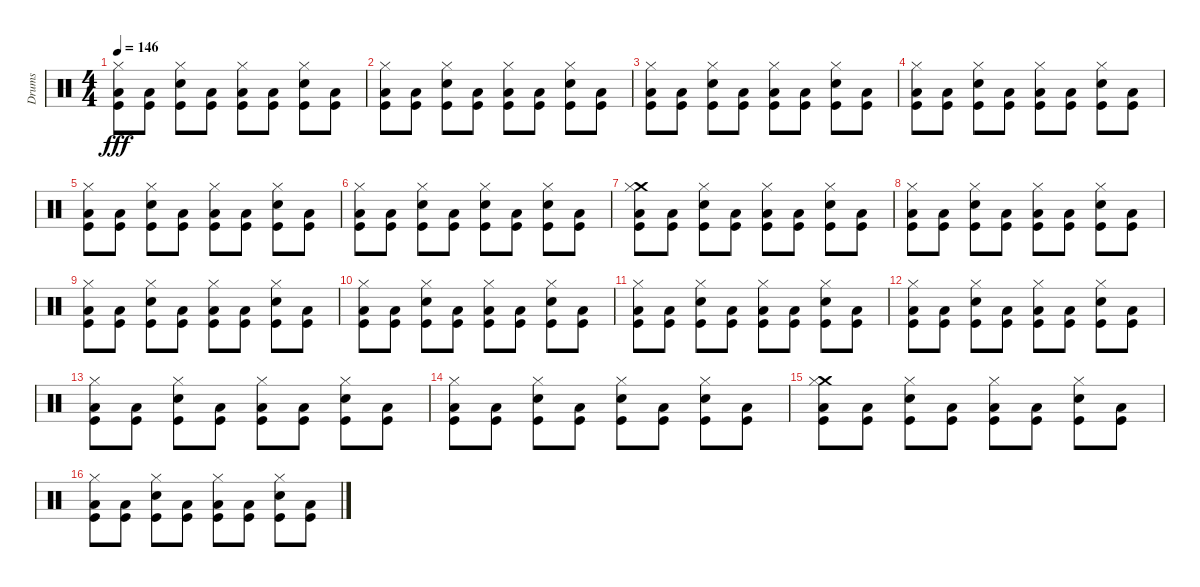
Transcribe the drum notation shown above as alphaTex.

\track ("Drums" "Drums") {instrument percussion}
\staff {score}
\articulation defaults
\ts (4 4)
\tempo 146
\clef neutral
\ks c
("Hi-Hat (closed)" "Low Floor Tom (hit)" "Kick (hit)").8{dy fff} ("Low Floor Tom (hit)" "Kick (hit)").8 ("Hi-Hat (closed)" "Electric Snare (hit)" "Kick (hit)").8 ("Low Floor Tom (hit)" "Kick (hit)").8 ("Hi-Hat (closed)" "Low Floor Tom (hit)" "Kick (hit)").8 ("Low Floor Tom (hit)" "Kick (hit)").8 ("Hi-Hat (closed)" "Electric Snare (hit)" "Kick (hit)").8 ("Low Floor Tom (hit)" "Kick (hit)").8 |
("Hi-Hat (closed)" "Low Floor Tom (hit)" "Kick (hit)").8 ("Low Floor Tom (hit)" "Kick (hit)").8 ("Hi-Hat (closed)" "Electric Snare (hit)" "Kick (hit)").8 ("Low Floor Tom (hit)" "Kick (hit)").8 ("Hi-Hat (closed)" "Low Floor Tom (hit)" "Kick (hit)").8 ("Low Floor Tom (hit)" "Kick (hit)").8 ("Hi-Hat (closed)" "Electric Snare (hit)" "Kick (hit)").8 ("Low Floor Tom (hit)" "Kick (hit)").8 |
("Hi-Hat (closed)" "Low Floor Tom (hit)" "Kick (hit)").8 ("Low Floor Tom (hit)" "Kick (hit)").8 ("Hi-Hat (closed)" "Electric Snare (hit)" "Kick (hit)").8 ("Low Floor Tom (hit)" "Kick (hit)").8 ("Hi-Hat (closed)" "Low Floor Tom (hit)" "Kick (hit)").8 ("Low Floor Tom (hit)" "Kick (hit)").8 ("Hi-Hat (closed)" "Electric Snare (hit)" "Kick (hit)").8 ("Low Floor Tom (hit)" "Kick (hit)").8 |
("Hi-Hat (closed)" "Low Floor Tom (hit)" "Kick (hit)").8 ("Low Floor Tom (hit)" "Kick (hit)").8 ("Hi-Hat (closed)" "Electric Snare (hit)" "Kick (hit)").8 ("Low Floor Tom (hit)" "Kick (hit)").8 ("Hi-Hat (closed)" "Low Floor Tom (hit)" "Kick (hit)").8 ("Low Floor Tom (hit)" "Kick (hit)").8 ("Hi-Hat (closed)" "Electric Snare (hit)" "Kick (hit)").8 ("Low Floor Tom (hit)" "Kick (hit)").8 |
("Hi-Hat (closed)" "Low Floor Tom (hit)" "Kick (hit)").8 ("Low Floor Tom (hit)" "Kick (hit)").8 ("Hi-Hat (closed)" "Electric Snare (hit)" "Kick (hit)").8 ("Low Floor Tom (hit)" "Kick (hit)").8 ("Hi-Hat (closed)" "Low Floor Tom (hit)" "Kick (hit)").8 ("Low Floor Tom (hit)" "Kick (hit)").8 ("Hi-Hat (closed)" "Electric Snare (hit)" "Kick (hit)").8 ("Low Floor Tom (hit)" "Kick (hit)").8 |
("Hi-Hat (closed)" "Low Floor Tom (hit)" "Kick (hit)").8 ("Low Floor Tom (hit)" "Kick (hit)").8 ("Hi-Hat (closed)" "Electric Snare (hit)" "Kick (hit)").8 ("Low Floor Tom (hit)" "Kick (hit)").8 ("Hi-Hat (closed)" "Electric Snare (hit)" "Kick (hit)").8 ("Low Floor Tom (hit)" "Kick (hit)").8 ("Hi-Hat (closed)" "Electric Snare (hit)" "Kick (hit)").8 ("Low Floor Tom (hit)" "Kick (hit)").8 |
("Crash medium (hit)" "Hi-Hat (closed)" "Low Floor Tom (hit)" "Kick (hit)").8 ("Low Floor Tom (hit)" "Kick (hit)").8 ("Hi-Hat (closed)" "Electric Snare (hit)" "Kick (hit)").8 ("Low Floor Tom (hit)" "Kick (hit)").8 ("Hi-Hat (closed)" "Low Floor Tom (hit)" "Kick (hit)").8 ("Low Floor Tom (hit)" "Kick (hit)").8 ("Hi-Hat (closed)" "Electric Snare (hit)" "Kick (hit)").8 ("Low Floor Tom (hit)" "Kick (hit)").8 |
("Hi-Hat (closed)" "Low Floor Tom (hit)" "Kick (hit)").8 ("Low Floor Tom (hit)" "Kick (hit)").8 ("Hi-Hat (closed)" "Electric Snare (hit)" "Kick (hit)").8 ("Low Floor Tom (hit)" "Kick (hit)").8 ("Hi-Hat (closed)" "Low Floor Tom (hit)" "Kick (hit)").8 ("Low Floor Tom (hit)" "Kick (hit)").8 ("Hi-Hat (closed)" "Electric Snare (hit)" "Kick (hit)").8 ("Low Floor Tom (hit)" "Kick (hit)").8 |
("Hi-Hat (closed)" "Low Floor Tom (hit)" "Kick (hit)").8 ("Low Floor Tom (hit)" "Kick (hit)").8 ("Hi-Hat (closed)" "Electric Snare (hit)" "Kick (hit)").8 ("Low Floor Tom (hit)" "Kick (hit)").8 ("Hi-Hat (closed)" "Low Floor Tom (hit)" "Kick (hit)").8 ("Low Floor Tom (hit)" "Kick (hit)").8 ("Hi-Hat (closed)" "Electric Snare (hit)" "Kick (hit)").8 ("Low Floor Tom (hit)" "Kick (hit)").8 |
("Hi-Hat (closed)" "Low Floor Tom (hit)" "Kick (hit)").8 ("Low Floor Tom (hit)" "Kick (hit)").8 ("Hi-Hat (closed)" "Electric Snare (hit)" "Kick (hit)").8 ("Low Floor Tom (hit)" "Kick (hit)").8 ("Hi-Hat (closed)" "Low Floor Tom (hit)" "Kick (hit)").8 ("Low Floor Tom (hit)" "Kick (hit)").8 ("Hi-Hat (closed)" "Electric Snare (hit)" "Kick (hit)").8 ("Low Floor Tom (hit)" "Kick (hit)").8 |
("Hi-Hat (closed)" "Low Floor Tom (hit)" "Kick (hit)").8 ("Low Floor Tom (hit)" "Kick (hit)").8 ("Hi-Hat (closed)" "Electric Snare (hit)" "Kick (hit)").8 ("Low Floor Tom (hit)" "Kick (hit)").8 ("Hi-Hat (closed)" "Low Floor Tom (hit)" "Kick (hit)").8 ("Low Floor Tom (hit)" "Kick (hit)").8 ("Hi-Hat (closed)" "Electric Snare (hit)" "Kick (hit)").8 ("Low Floor Tom (hit)" "Kick (hit)").8 |
("Hi-Hat (closed)" "Low Floor Tom (hit)" "Kick (hit)").8 ("Low Floor Tom (hit)" "Kick (hit)").8 ("Hi-Hat (closed)" "Electric Snare (hit)" "Kick (hit)").8 ("Low Floor Tom (hit)" "Kick (hit)").8 ("Hi-Hat (closed)" "Low Floor Tom (hit)" "Kick (hit)").8 ("Low Floor Tom (hit)" "Kick (hit)").8 ("Hi-Hat (closed)" "Electric Snare (hit)" "Kick (hit)").8 ("Low Floor Tom (hit)" "Kick (hit)").8 |
("Hi-Hat (closed)" "Low Floor Tom (hit)" "Kick (hit)").8 ("Low Floor Tom (hit)" "Kick (hit)").8 ("Hi-Hat (closed)" "Electric Snare (hit)" "Kick (hit)").8 ("Low Floor Tom (hit)" "Kick (hit)").8 ("Hi-Hat (closed)" "Low Floor Tom (hit)" "Kick (hit)").8 ("Low Floor Tom (hit)" "Kick (hit)").8 ("Hi-Hat (closed)" "Electric Snare (hit)" "Kick (hit)").8 ("Low Floor Tom (hit)" "Kick (hit)").8 |
("Hi-Hat (closed)" "Low Floor Tom (hit)" "Kick (hit)").8 ("Low Floor Tom (hit)" "Kick (hit)").8 ("Hi-Hat (closed)" "Electric Snare (hit)" "Kick (hit)").8 ("Low Floor Tom (hit)" "Kick (hit)").8 ("Hi-Hat (closed)" "Electric Snare (hit)" "Kick (hit)").8 ("Low Floor Tom (hit)" "Kick (hit)").8 ("Hi-Hat (closed)" "Electric Snare (hit)" "Kick (hit)").8 ("Low Floor Tom (hit)" "Kick (hit)").8 |
("Crash medium (hit)" "Hi-Hat (closed)" "Low Floor Tom (hit)" "Kick (hit)").8 ("Low Floor Tom (hit)" "Kick (hit)").8 ("Hi-Hat (closed)" "Electric Snare (hit)" "Kick (hit)").8 ("Low Floor Tom (hit)" "Kick (hit)").8 ("Hi-Hat (closed)" "Low Floor Tom (hit)" "Kick (hit)").8 ("Low Floor Tom (hit)" "Kick (hit)").8 ("Hi-Hat (closed)" "Electric Snare (hit)" "Kick (hit)").8 ("Low Floor Tom (hit)" "Kick (hit)").8 |
("Hi-Hat (closed)" "Low Floor Tom (hit)" "Kick (hit)").8 ("Low Floor Tom (hit)" "Kick (hit)").8 ("Hi-Hat (closed)" "Electric Snare (hit)" "Kick (hit)").8 ("Low Floor Tom (hit)" "Kick (hit)").8 ("Hi-Hat (closed)" "Low Floor Tom (hit)" "Kick (hit)").8 ("Low Floor Tom (hit)" "Kick (hit)").8 ("Hi-Hat (closed)" "Electric Snare (hit)" "Kick (hit)").8 ("Low Floor Tom (hit)" "Kick (hit)").8
